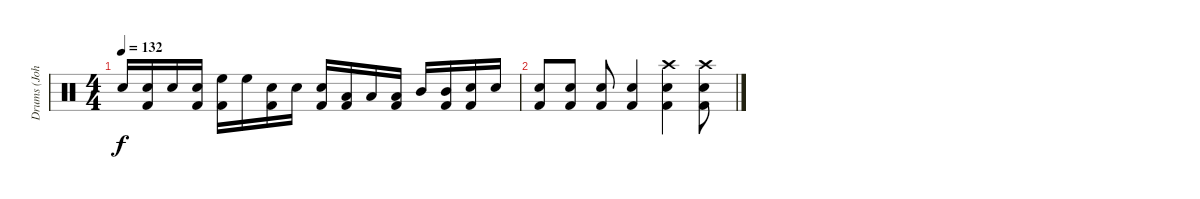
\track ("Drums (John Bonham)" "Drums (Joh") {instrument percussion}
\staff {score}
\articulation defaults
\ts (4 4)
\tempo 132
\clef neutral
\ks c "Electric Snare (hit)".16{dy f}
("Electric Snare (hit)" "Kick (hit) 2").16 "Electric Snare (hit)".16 ("Electric Snare (hit)" "Kick (hit) 2").16 ("High Floor Tom (hit)" "Kick (hit) 2").16 "High Floor Tom (hit)".16 ("Electric Snare (hit)" "Kick (hit) 2").16 "Electric Snare (hit)".16 ("Electric Snare (hit)" "Kick (hit) 2").16 ("Low Tom (hit)" "Kick (hit) 2").16 "Low Tom (hit)".16 ("Low Tom (hit)" "Kick (hit) 2").16 "Mid Tom (hit)".16 ("Mid Tom (hit)" "Kick (hit) 2").16 ("Electric Snare (hit)" "Kick (hit) 2").16 "Electric Snare (hit)".16 |
("Electric Snare (hit)" "Kick (hit) 2").8 ("Electric Snare (hit)" "Kick (hit) 2").8 ("Electric Snare (hit)" "Kick (hit) 2").8 ("Electric Snare (hit)" "Kick (hit) 2").4 ("Crash high (hit)" "Electric Snare (hit)" "Kick (hit) 2").4 ("Crash high (hit)" "Electric Snare (hit)" "Kick (hit) 2").8
